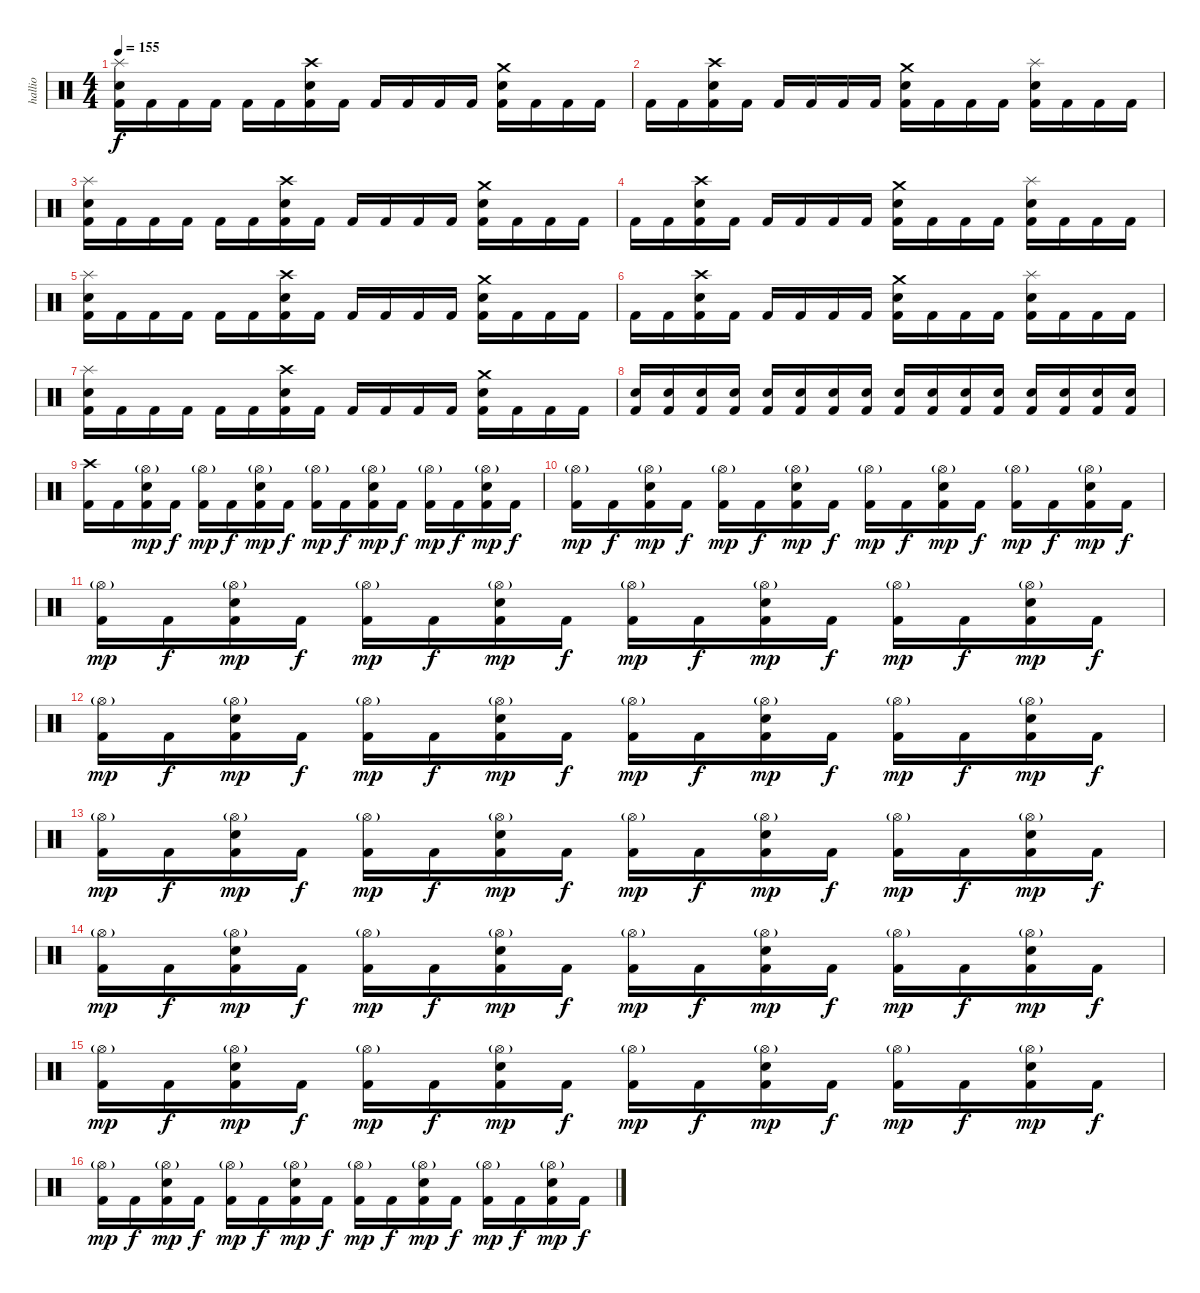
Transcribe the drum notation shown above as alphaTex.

\track ("hallio" "hallio") {instrument percussion}
\staff {score}
\articulation defaults
\ts (4 4)
\tempo 155
\clef neutral
\ks c
("Kick (hit) 2" "Snare (hit) 2" "Splash (hit)").16{dy f} "Kick (hit) 2".16 "Kick (hit) 2".16 "Kick (hit) 2".16 "Kick (hit) 2".16 "Kick (hit) 2".16 ("Kick (hit) 2" "Snare (hit) 2" "Crash high (hit)").16 "Kick (hit) 2".16 "Kick (hit) 2".16 "Kick (hit) 2".16 "Kick (hit) 2".16 "Kick (hit) 2".16 ("Kick (hit) 2" "Snare (hit) 2" "Crash medium (hit)").16 "Kick (hit) 2".16 "Kick (hit) 2".16 "Kick (hit) 2".16 |
"Kick (hit) 2".16 "Kick (hit) 2".16 ("Kick (hit) 2" "Snare (hit) 2" "Crash high (hit)").16 "Kick (hit) 2".16 "Kick (hit) 2".16 "Kick (hit) 2".16 "Kick (hit) 2".16 "Kick (hit) 2".16 ("Kick (hit) 2" "Snare (hit) 2" "Crash medium (hit)").16 "Kick (hit) 2".16 "Kick (hit) 2".16 "Kick (hit) 2".16 ("Kick (hit) 2" "Snare (hit) 2" "Splash (hit)").16 "Kick (hit) 2".16 "Kick (hit) 2".16 "Kick (hit) 2".16 |
("Kick (hit) 2" "Snare (hit) 2" "Splash (hit)").16 "Kick (hit) 2".16 "Kick (hit) 2".16 "Kick (hit) 2".16 "Kick (hit) 2".16 "Kick (hit) 2".16 ("Kick (hit) 2" "Snare (hit) 2" "Crash high (hit)").16 "Kick (hit) 2".16 "Kick (hit) 2".16 "Kick (hit) 2".16 "Kick (hit) 2".16 "Kick (hit) 2".16 ("Kick (hit) 2" "Snare (hit) 2" "Crash medium (hit)").16 "Kick (hit) 2".16 "Kick (hit) 2".16 "Kick (hit) 2".16 |
"Kick (hit) 2".16 "Kick (hit) 2".16 ("Kick (hit) 2" "Snare (hit) 2" "Crash high (hit)").16 "Kick (hit) 2".16 "Kick (hit) 2".16 "Kick (hit) 2".16 "Kick (hit) 2".16 "Kick (hit) 2".16 ("Kick (hit) 2" "Snare (hit) 2" "Crash medium (hit)").16 "Kick (hit) 2".16 "Kick (hit) 2".16 "Kick (hit) 2".16 ("Kick (hit) 2" "Snare (hit) 2" "Splash (hit)").16 "Kick (hit) 2".16 "Kick (hit) 2".16 "Kick (hit) 2".16 |
("Kick (hit) 2" "Snare (hit) 2" "Splash (hit)").16 "Kick (hit) 2".16 "Kick (hit) 2".16 "Kick (hit) 2".16 "Kick (hit) 2".16 "Kick (hit) 2".16 ("Kick (hit) 2" "Snare (hit) 2" "Crash high (hit)").16 "Kick (hit) 2".16 "Kick (hit) 2".16 "Kick (hit) 2".16 "Kick (hit) 2".16 "Kick (hit) 2".16 ("Kick (hit) 2" "Snare (hit) 2" "Crash medium (hit)").16 "Kick (hit) 2".16 "Kick (hit) 2".16 "Kick (hit) 2".16 |
"Kick (hit) 2".16 "Kick (hit) 2".16 ("Kick (hit) 2" "Snare (hit) 2" "Crash high (hit)").16 "Kick (hit) 2".16 "Kick (hit) 2".16 "Kick (hit) 2".16 "Kick (hit) 2".16 "Kick (hit) 2".16 ("Kick (hit) 2" "Snare (hit) 2" "Crash medium (hit)").16 "Kick (hit) 2".16 "Kick (hit) 2".16 "Kick (hit) 2".16 ("Kick (hit) 2" "Snare (hit) 2" "Splash (hit)").16 "Kick (hit) 2".16 "Kick (hit) 2".16 "Kick (hit) 2".16 |
("Kick (hit) 2" "Snare (hit) 2" "Splash (hit)").16 "Kick (hit) 2".16 "Kick (hit) 2".16 "Kick (hit) 2".16 "Kick (hit) 2".16 "Kick (hit) 2".16 ("Kick (hit) 2" "Snare (hit) 2" "Crash high (hit)").16 "Kick (hit) 2".16 "Kick (hit) 2".16 "Kick (hit) 2".16 "Kick (hit) 2".16 "Kick (hit) 2".16 ("Kick (hit) 2" "Snare (hit) 2" "Crash medium (hit)").16 "Kick (hit) 2".16 "Kick (hit) 2".16 "Kick (hit) 2".16 |
("Kick (hit) 2" "Snare (hit) 2").16 ("Kick (hit) 2" "Snare (hit) 2").16 ("Kick (hit) 2" "Snare (hit) 2").16 ("Kick (hit) 2" "Snare (hit) 2").16 ("Kick (hit) 2" "Snare (hit) 2").16 ("Kick (hit) 2" "Snare (hit) 2").16 ("Kick (hit) 2" "Snare (hit) 2").16 ("Kick (hit) 2" "Snare (hit) 2").16 ("Kick (hit) 2" "Snare (hit) 2").16 ("Kick (hit) 2" "Snare (hit) 2").16 ("Kick (hit) 2" "Snare (hit) 2").16 ("Kick (hit) 2" "Snare (hit) 2").16 ("Kick (hit) 2" "Snare (hit) 2").16 ("Kick (hit) 2" "Snare (hit) 2").16 ("Kick (hit) 2" "Snare (hit) 2").16 ("Kick (hit) 2" "Snare (hit) 2").16 |
("Kick (hit) 2" "Crash high (hit)").16 "Kick (hit) 2".16 ("Kick (hit) 2" "Snare (hit) 2" "Hi-Hat (open)"{g}).16{dy mp} "Kick (hit) 2".16{dy f} ("Kick (hit) 2" "Hi-Hat (open)"{g}).16{dy mp} "Kick (hit) 2".16{dy f} ("Kick (hit) 2" "Snare (hit) 2" "Hi-Hat (open)"{g}).16{dy mp} "Kick (hit) 2".16{dy f} ("Kick (hit) 2" "Hi-Hat (open)"{g}).16{dy mp} "Kick (hit) 2".16{dy f} ("Kick (hit) 2" "Snare (hit) 2" "Hi-Hat (open)"{g}).16{dy mp} "Kick (hit) 2".16{dy f} ("Kick (hit) 2" "Hi-Hat (open)"{g}).16{dy mp} "Kick (hit) 2".16{dy f} ("Kick (hit) 2" "Snare (hit) 2" "Hi-Hat (open)"{g}).16{dy mp} "Kick (hit) 2".16{dy f} |
("Kick (hit) 2" "Hi-Hat (open)"{g}).16{dy mp} "Kick (hit) 2".16{dy f} ("Kick (hit) 2" "Snare (hit) 2" "Hi-Hat (open)"{g}).16{dy mp} "Kick (hit) 2".16{dy f} ("Kick (hit) 2" "Hi-Hat (open)"{g}).16{dy mp} "Kick (hit) 2".16{dy f} ("Kick (hit) 2" "Snare (hit) 2" "Hi-Hat (open)"{g}).16{dy mp} "Kick (hit) 2".16{dy f} ("Kick (hit) 2" "Hi-Hat (open)"{g}).16{dy mp} "Kick (hit) 2".16{dy f} ("Kick (hit) 2" "Snare (hit) 2" "Hi-Hat (open)"{g}).16{dy mp} "Kick (hit) 2".16{dy f} ("Kick (hit) 2" "Hi-Hat (open)"{g}).16{dy mp} "Kick (hit) 2".16{dy f} ("Kick (hit) 2" "Snare (hit) 2" "Hi-Hat (open)"{g}).16{dy mp} "Kick (hit) 2".16{dy f} |
("Kick (hit) 2" "Hi-Hat (open)"{g}).16{dy mp} "Kick (hit) 2".16{dy f} ("Kick (hit) 2" "Snare (hit) 2" "Hi-Hat (open)"{g}).16{dy mp} "Kick (hit) 2".16{dy f} ("Kick (hit) 2" "Hi-Hat (open)"{g}).16{dy mp} "Kick (hit) 2".16{dy f} ("Kick (hit) 2" "Snare (hit) 2" "Hi-Hat (open)"{g}).16{dy mp} "Kick (hit) 2".16{dy f} ("Kick (hit) 2" "Hi-Hat (open)"{g}).16{dy mp} "Kick (hit) 2".16{dy f} ("Kick (hit) 2" "Snare (hit) 2" "Hi-Hat (open)"{g}).16{dy mp} "Kick (hit) 2".16{dy f} ("Kick (hit) 2" "Hi-Hat (open)"{g}).16{dy mp} "Kick (hit) 2".16{dy f} ("Kick (hit) 2" "Snare (hit) 2" "Hi-Hat (open)"{g}).16{dy mp} "Kick (hit) 2".16{dy f} |
("Kick (hit) 2" "Hi-Hat (open)"{g}).16{dy mp} "Kick (hit) 2".16{dy f} ("Kick (hit) 2" "Snare (hit) 2" "Hi-Hat (open)"{g}).16{dy mp} "Kick (hit) 2".16{dy f} ("Kick (hit) 2" "Hi-Hat (open)"{g}).16{dy mp} "Kick (hit) 2".16{dy f} ("Kick (hit) 2" "Snare (hit) 2" "Hi-Hat (open)"{g}).16{dy mp} "Kick (hit) 2".16{dy f} ("Kick (hit) 2" "Hi-Hat (open)"{g}).16{dy mp} "Kick (hit) 2".16{dy f} ("Kick (hit) 2" "Snare (hit) 2" "Hi-Hat (open)"{g}).16{dy mp} "Kick (hit) 2".16{dy f} ("Kick (hit) 2" "Hi-Hat (open)"{g}).16{dy mp} "Kick (hit) 2".16{dy f} ("Kick (hit) 2" "Snare (hit) 2" "Hi-Hat (open)"{g}).16{dy mp} "Kick (hit) 2".16{dy f} |
("Kick (hit) 2" "Hi-Hat (open)"{g}).16{dy mp} "Kick (hit) 2".16{dy f} ("Kick (hit) 2" "Snare (hit) 2" "Hi-Hat (open)"{g}).16{dy mp} "Kick (hit) 2".16{dy f} ("Kick (hit) 2" "Hi-Hat (open)"{g}).16{dy mp} "Kick (hit) 2".16{dy f} ("Kick (hit) 2" "Snare (hit) 2" "Hi-Hat (open)"{g}).16{dy mp} "Kick (hit) 2".16{dy f} ("Kick (hit) 2" "Hi-Hat (open)"{g}).16{dy mp} "Kick (hit) 2".16{dy f} ("Kick (hit) 2" "Snare (hit) 2" "Hi-Hat (open)"{g}).16{dy mp} "Kick (hit) 2".16{dy f} ("Kick (hit) 2" "Hi-Hat (open)"{g}).16{dy mp} "Kick (hit) 2".16{dy f} ("Kick (hit) 2" "Snare (hit) 2" "Hi-Hat (open)"{g}).16{dy mp} "Kick (hit) 2".16{dy f} |
("Kick (hit) 2" "Hi-Hat (open)"{g}).16{dy mp} "Kick (hit) 2".16{dy f} ("Kick (hit) 2" "Snare (hit) 2" "Hi-Hat (open)"{g}).16{dy mp} "Kick (hit) 2".16{dy f} ("Kick (hit) 2" "Hi-Hat (open)"{g}).16{dy mp} "Kick (hit) 2".16{dy f} ("Kick (hit) 2" "Snare (hit) 2" "Hi-Hat (open)"{g}).16{dy mp} "Kick (hit) 2".16{dy f} ("Kick (hit) 2" "Hi-Hat (open)"{g}).16{dy mp} "Kick (hit) 2".16{dy f} ("Kick (hit) 2" "Snare (hit) 2" "Hi-Hat (open)"{g}).16{dy mp} "Kick (hit) 2".16{dy f} ("Kick (hit) 2" "Hi-Hat (open)"{g}).16{dy mp} "Kick (hit) 2".16{dy f} ("Kick (hit) 2" "Snare (hit) 2" "Hi-Hat (open)"{g}).16{dy mp} "Kick (hit) 2".16{dy f} |
("Kick (hit) 2" "Hi-Hat (open)"{g}).16{dy mp} "Kick (hit) 2".16{dy f} ("Kick (hit) 2" "Snare (hit) 2" "Hi-Hat (open)"{g}).16{dy mp} "Kick (hit) 2".16{dy f} ("Kick (hit) 2" "Hi-Hat (open)"{g}).16{dy mp} "Kick (hit) 2".16{dy f} ("Kick (hit) 2" "Snare (hit) 2" "Hi-Hat (open)"{g}).16{dy mp} "Kick (hit) 2".16{dy f} ("Kick (hit) 2" "Hi-Hat (open)"{g}).16{dy mp} "Kick (hit) 2".16{dy f} ("Kick (hit) 2" "Snare (hit) 2" "Hi-Hat (open)"{g}).16{dy mp} "Kick (hit) 2".16{dy f} ("Kick (hit) 2" "Hi-Hat (open)"{g}).16{dy mp} "Kick (hit) 2".16{dy f} ("Kick (hit) 2" "Snare (hit) 2" "Hi-Hat (open)"{g}).16{dy mp} "Kick (hit) 2".16{dy f} |
("Kick (hit) 2" "Hi-Hat (open)"{g}).16{dy mp} "Kick (hit) 2".16{dy f} ("Kick (hit) 2" "Snare (hit) 2" "Hi-Hat (open)"{g}).16{dy mp} "Kick (hit) 2".16{dy f} ("Kick (hit) 2" "Hi-Hat (open)"{g}).16{dy mp} "Kick (hit) 2".16{dy f} ("Kick (hit) 2" "Snare (hit) 2" "Hi-Hat (open)"{g}).16{dy mp} "Kick (hit) 2".16{dy f} ("Kick (hit) 2" "Hi-Hat (open)"{g}).16{dy mp} "Kick (hit) 2".16{dy f} ("Kick (hit) 2" "Snare (hit) 2" "Hi-Hat (open)"{g}).16{dy mp} "Kick (hit) 2".16{dy f} ("Kick (hit) 2" "Hi-Hat (open)"{g}).16{dy mp} "Kick (hit) 2".16{dy f} ("Kick (hit) 2" "Snare (hit) 2" "Hi-Hat (open)"{g}).16{dy mp} "Kick (hit) 2".16{dy f}
